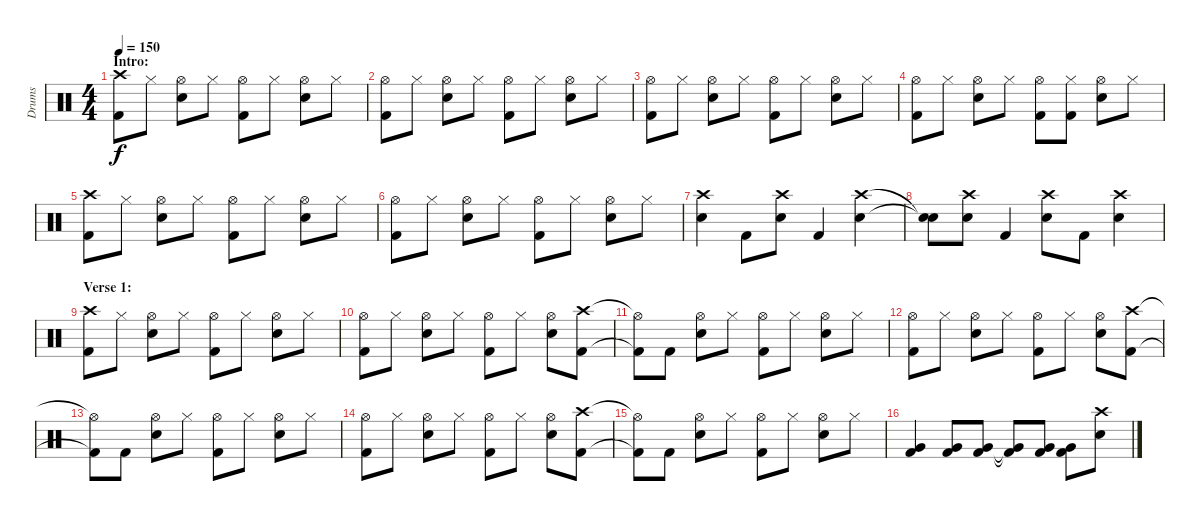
\track ("Drums" "Drums") {instrument percussion}
\staff {score}
\articulation defaults
\ts (4 4)
\section ("" "Intro:")
\tempo 150
\clef neutral
\ks c
("Crash high (hit)" "Kick (hit) 2").8{dy f} "Hi-Hat (closed)".8 ("Hi-Hat (open)" "Snare (hit) 2").8 "Hi-Hat (closed)".8 ("Hi-Hat (open)" "Kick (hit) 2").8 "Hi-Hat (closed)".8 ("Hi-Hat (open)" "Snare (hit) 2").8 "Hi-Hat (closed)".8 |
("Hi-Hat (open)" "Kick (hit) 2").8 "Hi-Hat (closed)".8 ("Hi-Hat (open)" "Snare (hit) 2").8 "Hi-Hat (closed)".8 ("Hi-Hat (open)" "Kick (hit) 2").8 "Hi-Hat (closed)".8 ("Hi-Hat (open)" "Snare (hit) 2").8 "Hi-Hat (closed)".8 |
("Hi-Hat (open)" "Kick (hit) 2").8 "Hi-Hat (closed)".8 ("Hi-Hat (open)" "Snare (hit) 2").8 "Hi-Hat (closed)".8 ("Hi-Hat (open)" "Kick (hit) 2").8 "Hi-Hat (closed)".8 ("Hi-Hat (open)" "Snare (hit) 2").8 "Hi-Hat (closed)".8 |
("Hi-Hat (open)" "Kick (hit) 2").8 "Hi-Hat (closed)".8 ("Hi-Hat (open)" "Snare (hit) 2").8 "Hi-Hat (closed)".8 ("Hi-Hat (open)" "Kick (hit) 2").8 ("Hi-Hat (closed)" "Kick (hit) 2").8 ("Hi-Hat (open)" "Snare (hit) 2").8 "Hi-Hat (closed)".8 |
("Crash high (hit)" "Kick (hit) 2").8 "Hi-Hat (closed)".8 ("Hi-Hat (open)" "Snare (hit) 2").8 "Hi-Hat (closed)".8 ("Hi-Hat (open)" "Kick (hit) 2").8 "Hi-Hat (closed)".8 ("Hi-Hat (open)" "Snare (hit) 2").8 "Hi-Hat (closed)".8 |
("Hi-Hat (open)" "Kick (hit) 2").8 "Hi-Hat (closed)".8 ("Hi-Hat (open)" "Snare (hit) 2").8 "Hi-Hat (closed)".8 ("Hi-Hat (open)" "Kick (hit) 2").8 "Hi-Hat (closed)".8 ("Hi-Hat (open)" "Snare (hit) 2").8 "Hi-Hat (closed)".8 |
("Crash high (hit)" "Snare (hit) 2").4 "Kick (hit) 2".8 ("Crash high (hit)" "Snare (hit) 2").8 "Kick (hit) 2".4 ("Crash high (hit)" "Snare (hit) 2").4 |
("Snare (hit)"{t} "Snare (hit)"{t}).8 ("Crash high (hit)" "Snare (hit) 2").8 "Kick (hit) 2".4 ("Crash high (hit)" "Snare (hit) 2").8 "Kick (hit) 2".8 ("Crash high (hit)" "Snare (hit) 2").4 |
\section ("" "Verse 1:")
("Crash high (hit)" "Kick (hit) 2").8 "Hi-Hat (closed)".8 ("Hi-Hat (open)" "Snare (hit) 2").8 "Hi-Hat (closed)".8 ("Hi-Hat (open)" "Kick (hit) 2").8 "Hi-Hat (closed)".8 ("Hi-Hat (open)" "Snare (hit) 2").8 "Hi-Hat (closed)".8 |
("Hi-Hat (open)" "Kick (hit) 2").8 "Hi-Hat (closed)".8 ("Hi-Hat (open)" "Snare (hit) 2").8 "Hi-Hat (closed)".8 ("Hi-Hat (open)" "Kick (hit) 2").8 "Hi-Hat (closed)".8 ("Hi-Hat (open)" "Snare (hit) 2").8 ("Crash high (hit)" "Kick (hit) 2").8 |
("Hi-Hat (open)"{t} "Kick (hit) 2"{t}).8 "Kick (hit) 2".8 ("Hi-Hat (open)" "Snare (hit) 2").8 "Hi-Hat (closed)".8 ("Hi-Hat (open)" "Kick (hit) 2").8 "Hi-Hat (closed)".8 ("Hi-Hat (open)" "Snare (hit) 2").8 "Hi-Hat (closed)".8 |
("Hi-Hat (open)" "Kick (hit) 2").8 "Hi-Hat (closed)".8 ("Hi-Hat (open)" "Snare (hit) 2").8 "Hi-Hat (closed)".8 ("Hi-Hat (open)" "Kick (hit) 2").8 "Hi-Hat (closed)".8 ("Hi-Hat (open)" "Snare (hit) 2").8 ("Crash high (hit)" "Kick (hit) 2").8 |
("Hi-Hat (open)"{t} "Kick (hit) 2"{t}).8 "Kick (hit) 2".8 ("Hi-Hat (open)" "Snare (hit) 2").8 "Hi-Hat (closed)".8 ("Hi-Hat (open)" "Kick (hit) 2").8 "Hi-Hat (closed)".8 ("Hi-Hat (open)" "Snare (hit) 2").8 "Hi-Hat (closed)".8 |
("Hi-Hat (open)" "Kick (hit) 2").8 "Hi-Hat (closed)".8 ("Hi-Hat (open)" "Snare (hit) 2").8 "Hi-Hat (closed)".8 ("Hi-Hat (open)" "Kick (hit) 2").8 "Hi-Hat (closed)".8 ("Hi-Hat (open)" "Snare (hit) 2").8 ("Crash high (hit)" "Kick (hit) 2").8 |
("Hi-Hat (open)"{t} "Kick (hit) 2"{t}).8 "Kick (hit) 2".8 ("Hi-Hat (open)" "Snare (hit) 2").8 "Hi-Hat (closed)".8 ("Hi-Hat (open)" "Kick (hit) 2").8 "Hi-Hat (closed)".8 ("Hi-Hat (open)" "Snare (hit) 2").8 "Hi-Hat (closed)".8 |
("Very Low Tom (hit)" "Kick (hit) 2").4 ("Very Low Tom (hit)" "Kick (hit) 2").8 ("Very Low Tom (hit)" "Kick (hit) 2").8 ("Very Low Tom (hit)"{t} "Kick (hit) 2"{t}).8 ("Very Low Tom (hit)" "Kick (hit) 2").8 ("Very Low Tom (hit)" "Kick (hit) 2").8 ("Crash high (hit)" "Snare (hit) 2").8
